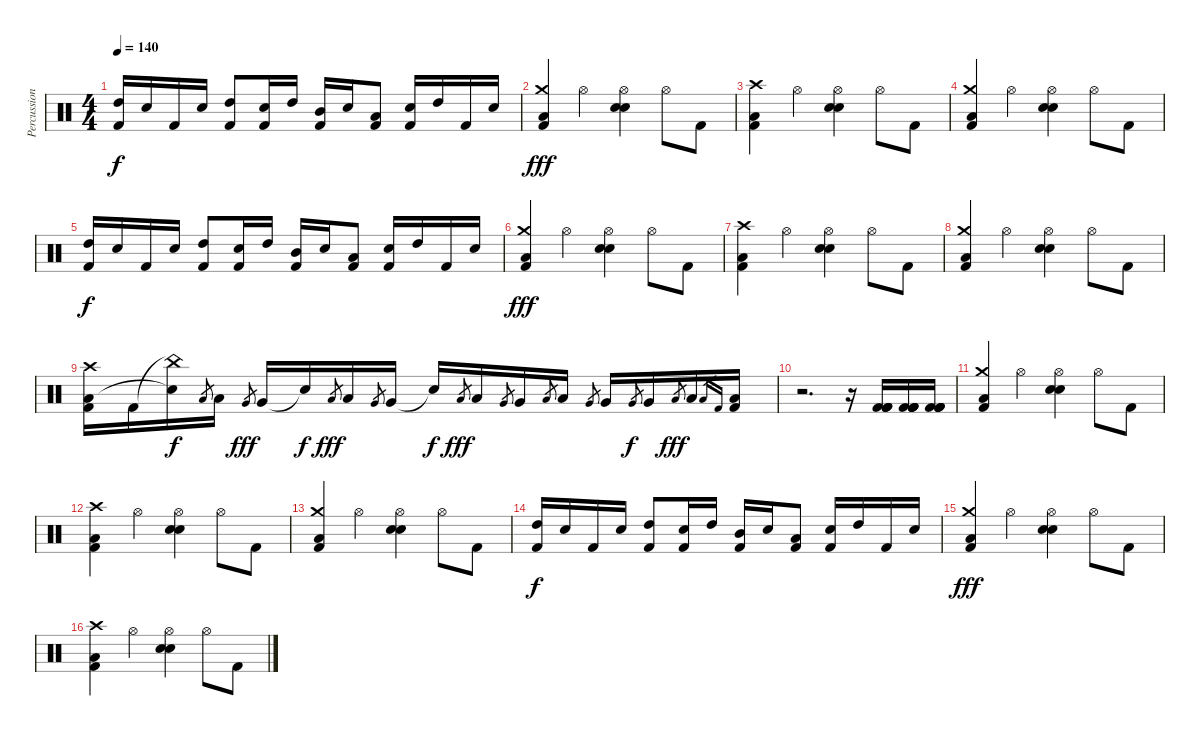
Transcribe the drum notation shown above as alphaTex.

\track ("Percussion" "Percussion") {instrument percussion}
\staff {score}
\articulation defaults
\ts (4 4)
\tempo 140
\clef neutral
\ks c
("High Tom (hit)" "Kick (hit) 2").16{dy f} "Snare (hit) 2".16 "Kick (hit) 2".16 "Snare (hit) 2".16 ("High Tom (hit)" "Kick (hit) 2").8 ("Snare (hit) 2" "Kick (hit) 2").16 "High Tom (hit)".16 ("Mid Tom (hit)" "Kick (hit) 2").16 "Snare (hit) 2".16 ("Low Tom (hit)" "Kick (hit) 2").8 ("Snare (hit) 2" "Kick (hit) 2").16 "High Tom (hit)".16 "Kick (hit) 2".16 "Snare (hit) 2".16 |
("Crash medium (hit)" "Low Floor Tom (hit)" "Kick (hit) 2").4{dy fff} "Hi-Hat (open)".4 ("Hi-Hat (open)" "Snare (hit) 2" "Electric Snare (hit)").4 "Hi-Hat (open)".8 "Kick (hit) 2".8 |
("Crash high (hit)" "Low Floor Tom (hit)" "Kick (hit) 2").4 "Hi-Hat (open)".4 ("Hi-Hat (open)" "Snare (hit) 2" "Electric Snare (hit)").4 "Hi-Hat (open)".8 "Kick (hit) 2".8 |
("Crash medium (hit)" "Low Floor Tom (hit)" "Kick (hit) 2").4 "Hi-Hat (open)".4 ("Hi-Hat (open)" "Snare (hit) 2" "Electric Snare (hit)").4 "Hi-Hat (open)".8 "Kick (hit) 2".8 |
("High Tom (hit)" "Kick (hit) 2").16{dy f} "Snare (hit) 2".16 "Kick (hit) 2".16 "Snare (hit) 2".16 ("High Tom (hit)" "Kick (hit) 2").8 ("Snare (hit) 2" "Kick (hit) 2").16 "High Tom (hit)".16 ("Mid Tom (hit)" "Kick (hit) 2").16 "Snare (hit) 2".16 ("Low Tom (hit)" "Kick (hit) 2").8 ("Snare (hit) 2" "Kick (hit) 2").16 "High Tom (hit)".16 "Kick (hit) 2".16 "Snare (hit) 2".16 |
("Crash medium (hit)" "Low Floor Tom (hit)" "Kick (hit) 2").4{dy fff} "Hi-Hat (open)".4 ("Hi-Hat (open)" "Snare (hit) 2" "Electric Snare (hit)").4 "Hi-Hat (open)".8 "Kick (hit) 2".8 |
("Crash high (hit)" "Low Floor Tom (hit)" "Kick (hit) 2").4 "Hi-Hat (open)".4 ("Hi-Hat (open)" "Snare (hit) 2" "Electric Snare (hit)").4 "Hi-Hat (open)".8 "Kick (hit) 2".8 |
("Crash medium (hit)" "Low Floor Tom (hit)" "Kick (hit) 2").4 "Hi-Hat (open)".4 ("Hi-Hat (open)" "Snare (hit) 2" "Electric Snare (hit)").4 "Hi-Hat (open)".8 "Kick (hit) 2".8 |
("Crash high (hit)" "Low Floor Tom (hit)" "Kick (hit) 2").16 "Kick (hit) 2".16 ("China (hit)"{t} "Snare (hit)"{t}).16{dy f} "Low Floor Tom (hit)".8{gr} "Low Floor Tom (hit)".16 "Very Low Tom (hit)".8{gr dy fff} "Very Low Tom (hit)".16 "Snare (hit)"{t}.16{dy f} "Low Floor Tom (hit)".8{gr dy fff} "Low Floor Tom (hit)".16 "Very Low Tom (hit)".8{gr} "Very Low Tom (hit)".16 "Snare (hit) 2"{t}.16{dy f} "Low Floor Tom (hit)".8{gr dy fff} "Low Floor Tom (hit)".16 "Very Low Tom (hit)".8{gr} "Very Low Tom (hit)".16 "Low Floor Tom (hit)".8{gr} "Low Floor Tom (hit)".16 "Very Low Tom (hit)".8{gr} "Very Low Tom (hit)".16 "Very Low Tom (hit)".8{gr dy f} "Very Low Tom (hit)".16 "Low Floor Tom (hit)".8{gr dy fff} "Low Floor Tom (hit)".16 "Low Floor Tom (hit)".16{gr} "Kick (hit) 2".16{gr} ("Low Floor Tom (hit)" "Kick (hit) 2").16 |
r.2{d} r.16 ("Kick (hit) 2" "Kick (hit) 2" "Kick (hit) 2" "Kick (hit) 2").16 ("Kick (hit) 2" "Kick (hit) 2" "Kick (hit) 2" "Kick (hit) 2").16 ("Kick (hit) 2" "Kick (hit) 2" "Kick (hit) 2" "Kick (hit) 2").16 |
("Crash medium (hit)" "Low Floor Tom (hit)" "Kick (hit) 2").4 "Hi-Hat (open)".4 ("Hi-Hat (open)" "Snare (hit) 2" "Electric Snare (hit)").4 "Hi-Hat (open)".8 "Kick (hit) 2".8 |
("Crash high (hit)" "Low Floor Tom (hit)" "Kick (hit) 2").4 "Hi-Hat (open)".4 ("Hi-Hat (open)" "Snare (hit) 2" "Electric Snare (hit)").4 "Hi-Hat (open)".8 "Kick (hit) 2".8 |
("Crash medium (hit)" "Low Floor Tom (hit)" "Kick (hit) 2").4 "Hi-Hat (open)".4 ("Hi-Hat (open)" "Snare (hit) 2" "Electric Snare (hit)").4 "Hi-Hat (open)".8 "Kick (hit) 2".8 |
("High Tom (hit)" "Kick (hit) 2").16{dy f} "Snare (hit) 2".16 "Kick (hit) 2".16 "Snare (hit) 2".16 ("High Tom (hit)" "Kick (hit) 2").8 ("Snare (hit) 2" "Kick (hit) 2").16 "High Tom (hit)".16 ("Mid Tom (hit)" "Kick (hit) 2").16 "Snare (hit) 2".16 ("Low Tom (hit)" "Kick (hit) 2").8 ("Snare (hit) 2" "Kick (hit) 2").16 "High Tom (hit)".16 "Kick (hit) 2".16 "Snare (hit) 2".16 |
("Crash medium (hit)" "Low Floor Tom (hit)" "Kick (hit) 2").4{dy fff} "Hi-Hat (open)".4 ("Hi-Hat (open)" "Snare (hit) 2" "Electric Snare (hit)").4 "Hi-Hat (open)".8 "Kick (hit) 2".8 |
("Crash high (hit)" "Low Floor Tom (hit)" "Kick (hit) 2").4 "Hi-Hat (open)".4 ("Hi-Hat (open)" "Snare (hit) 2" "Electric Snare (hit)").4 "Hi-Hat (open)".8 "Kick (hit) 2".8
